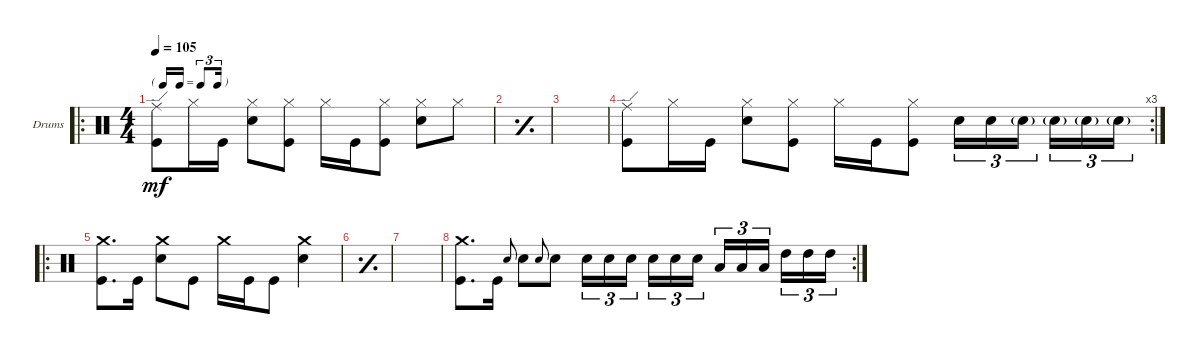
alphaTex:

\defaultSystemsLayout 4
\bracketExtendMode groupsimilarinstruments
\firstSystemTrackNameOrientation horizontal
\otherSystemsTrackNameOrientation horizontal
\track ("Drumkit" "Drums") {instrument percussion}
\staff {score}
\articulation defaults
\ro
\ts (4 4)
\tf triplet16th
\tempo 105
\clef neutral
\ks c
("Kick (hit)" "Ride (edge)").8{dy mf} "Hi-Hat (closed)".16 "Kick (hit)".16 ("Snare (hit) 2" "Hi-Hat (closed)").8 ("Kick (hit)" "Hi-Hat (closed)").8 "Hi-Hat (closed)".16 "Kick (hit)".16 ("Kick (hit)" "Hi-Hat (closed)").8 ("Snare (hit) 2" "Hi-Hat (closed)").8 "Hi-Hat (closed)".8 |
\simile simple
|
|
\rc 3
\simile none
("Kick (hit)" "Ride (edge)").8 "Hi-Hat (closed)".16 "Kick (hit)".16 ("Snare (hit) 2" "Hi-Hat (closed)").8 ("Kick (hit)" "Hi-Hat (closed)").8 "Hi-Hat (closed)".16 "Kick (hit)".16 ("Kick (hit)" "Hi-Hat (closed)").8 "Snare (hit) 2".16{tu (3 2)} "Snare (hit) 2".16{tu (3 2)} "Snare (hit) 2"{g}.16{tu (3 2)} "Snare (hit) 2"{g}.16{tu (3 2)} "Snare (hit) 2"{g}.16{tu (3 2)} "Snare (hit) 2"{g}.16{tu (3 2)} |
\ro
("Kick (hit)" "Crash medium (hit)").8{d} "Kick (hit)".16 ("Snare (hit) 2" "Crash medium (hit)").8 "Kick (hit)".8 "Crash medium (hit)".16 "Kick (hit)".16 "Kick (hit)".8 ("Snare (hit) 2" "Crash medium (hit)").4 |
\simile simple
|
|
\rc 2
\simile none
("Kick (hit)" "Crash medium (hit)").8{d} "Kick (hit)".16 "Snare (hit) 2".8{gr onbeat} "Snare (hit) 2".8 "Snare (hit) 2".8{gr onbeat} "Snare (hit) 2".8 "Snare (hit) 2".16{tu (3 2)} "Snare (hit) 2".16{tu (3 2)} "Snare (hit) 2".16{tu (3 2)} "Snare (hit) 2".16{tu (3 2)} "Snare (hit) 2".16{tu (3 2)} "Snare (hit) 2".16{tu (3 2)} "Low Tom (hit)".16{tu (3 2)} "Low Tom (hit)".16{tu (3 2)} "Low Tom (hit)".16{tu (3 2)} "High Tom (hit)".16{tu (3 2)} "High Tom (hit)".16{tu (3 2)} "High Tom (hit)".16{tu (3 2)}
